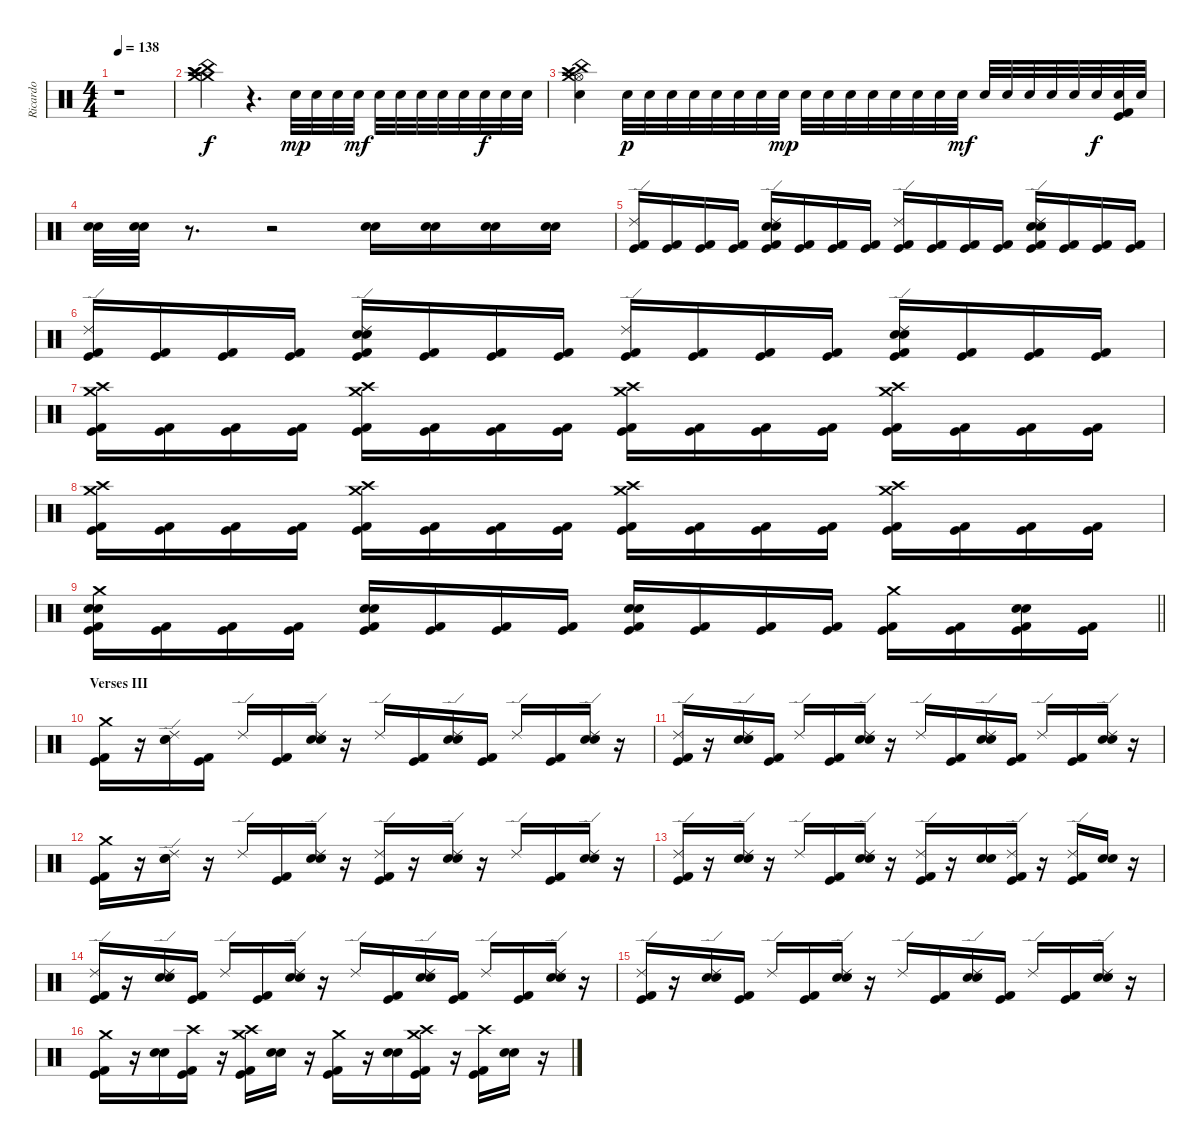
\track ("Ricardo" "Ricardo") {instrument percussion}
\staff {score}
\articulation defaults
\ts (4 4)
\tempo 138
\clef neutral
\ks c
r.1{dy f} |
("China (hit)" "Splash (hit)" "Crash medium (hit)" "Crash medium (hit)" "Crash high (hit)" "Crash high (hit)").4 r.4{d} "Electric Snare (hit)".32{dy mp} "Electric Snare (hit)".32 "Electric Snare (hit)".32 "Electric Snare (hit)".32{dy mf} "Electric Snare (hit)".32 "Electric Snare (hit)".32 "Electric Snare (hit)".32 "Electric Snare (hit)".32 "Electric Snare (hit)".32 "Electric Snare (hit)".32{dy f} "Electric Snare (hit)".32 "Electric Snare (hit)".32 |
("Hi-Hat (open)" "Crash high (hit)" "China (hit)" "Splash (hit)" "Crash medium (hit)" "Electric Snare (hit)").4 "Electric Snare (hit)".32{dy p} "Electric Snare (hit)".32 "Electric Snare (hit)".32 "Electric Snare (hit)".32 "Electric Snare (hit)".32 "Electric Snare (hit)".32 "Electric Snare (hit)".32 "Electric Snare (hit)".32{dy mp} "Electric Snare (hit)".32 "Electric Snare (hit)".32 "Electric Snare (hit)".32 "Electric Snare (hit)".32 "Electric Snare (hit)".32 "Electric Snare (hit)".32 "Electric Snare (hit)".32 "Electric Snare (hit)".32{dy mf} "Electric Snare (hit)".32 "Electric Snare (hit)".32 "Electric Snare (hit)".32 "Electric Snare (hit)".32 "Electric Snare (hit)".32 "Electric Snare (hit)".32{dy f} ("Kick (hit) 2" "Kick (hit)" "Electric Snare (hit)").32 "Electric Snare (hit)".32 |
("Electric Snare (hit)" "Snare (hit) 2").32 ("Electric Snare (hit)" "Snare (hit) 2").32 r.8{d} r.2 ("Electric Snare (hit)" "Snare (hit) 2").16 ("Electric Snare (hit)" "Snare (hit) 2").16 ("Electric Snare (hit)" "Snare (hit) 2").16 ("Snare (hit) 2" "Electric Snare (hit)").16 |
("Ride (edge) 2" "Kick (hit) 2" "Kick (hit)").16 ("Kick (hit) 2" "Kick (hit)").16 ("Kick (hit) 2" "Kick (hit)").16 ("Kick (hit) 2" "Kick (hit)").16 ("Snare (hit) 2" "Electric Snare (hit)" "Ride (edge) 2" "Kick (hit) 2" "Kick (hit)").16 ("Kick (hit) 2" "Kick (hit)").16 ("Kick (hit) 2" "Kick (hit)").16 ("Kick (hit) 2" "Kick (hit)").16 ("Ride (edge) 2" "Kick (hit) 2" "Kick (hit)").16 ("Kick (hit) 2" "Kick (hit)").16 ("Kick (hit) 2" "Kick (hit)").16 ("Kick (hit) 2" "Kick (hit)").16 ("Snare (hit) 2" "Electric Snare (hit)" "Ride (edge) 2" "Kick (hit) 2" "Kick (hit)").16 ("Kick (hit) 2" "Kick (hit)").16 ("Kick (hit) 2" "Kick (hit)").16 ("Kick (hit) 2" "Kick (hit)").16 |
("Ride (edge) 2" "Kick (hit) 2" "Kick (hit)").16 ("Kick (hit) 2" "Kick (hit)").16 ("Kick (hit) 2" "Kick (hit)").16 ("Kick (hit) 2" "Kick (hit)").16 ("Snare (hit) 2" "Electric Snare (hit)" "Ride (edge) 2" "Kick (hit) 2" "Kick (hit)").16 ("Kick (hit) 2" "Kick (hit)").16 ("Kick (hit) 2" "Kick (hit)").16 ("Kick (hit) 2" "Kick (hit)").16 ("Ride (edge) 2" "Kick (hit) 2" "Kick (hit)").16 ("Kick (hit) 2" "Kick (hit)").16 ("Kick (hit) 2" "Kick (hit)").16 ("Kick (hit) 2" "Kick (hit)").16 ("Snare (hit) 2" "Electric Snare (hit)" "Ride (edge) 2" "Kick (hit) 2" "Kick (hit)").16 ("Kick (hit) 2" "Kick (hit)").16 ("Kick (hit) 2" "Kick (hit)").16 ("Kick (hit) 2" "Kick (hit)").16 |
("Crash medium (hit)" "Crash high (hit)" "Kick (hit) 2" "Kick (hit)").16 ("Kick (hit) 2" "Kick (hit)").16 ("Kick (hit) 2" "Kick (hit)").16 ("Kick (hit) 2" "Kick (hit)").16 ("Crash high (hit)" "Crash medium (hit)" "Kick (hit) 2" "Kick (hit)").16 ("Kick (hit) 2" "Kick (hit)").16 ("Kick (hit) 2" "Kick (hit)").16 ("Kick (hit) 2" "Kick (hit)").16 ("Crash high (hit)" "Crash medium (hit)" "Kick (hit) 2" "Kick (hit)").16 ("Kick (hit) 2" "Kick (hit)").16 ("Kick (hit) 2" "Kick (hit)").16 ("Kick (hit) 2" "Kick (hit)").16 ("Crash high (hit)" "Crash medium (hit)" "Kick (hit) 2" "Kick (hit)").16 ("Kick (hit) 2" "Kick (hit)").16 ("Kick (hit) 2" "Kick (hit)").16 ("Kick (hit) 2" "Kick (hit)").16 |
("Crash medium (hit)" "Crash high (hit)" "Kick (hit) 2" "Kick (hit)").16 ("Kick (hit) 2" "Kick (hit)").16 ("Kick (hit) 2" "Kick (hit)").16 ("Kick (hit) 2" "Kick (hit)").16 ("Crash medium (hit)" "Crash high (hit)" "Kick (hit) 2" "Kick (hit)").16 ("Kick (hit) 2" "Kick (hit)").16 ("Kick (hit) 2" "Kick (hit)").16 ("Kick (hit) 2" "Kick (hit)").16 ("Crash medium (hit)" "Crash high (hit)" "Kick (hit) 2" "Kick (hit)").16 ("Kick (hit) 2" "Kick (hit)").16 ("Kick (hit) 2" "Kick (hit)").16 ("Kick (hit) 2" "Kick (hit)").16 ("Crash medium (hit)" "Crash high (hit)" "Kick (hit) 2" "Kick (hit)").16 ("Kick (hit) 2" "Kick (hit)").16 ("Kick (hit) 2" "Kick (hit)").16 ("Kick (hit) 2" "Kick (hit)").16 |
\barLineRight lightlight
("Snare (hit) 2" "Electric Snare (hit)" "Crash medium (hit)" "Kick (hit) 2" "Kick (hit)").16 ("Kick (hit) 2" "Kick (hit)").16 ("Kick (hit) 2" "Kick (hit)").16 ("Kick (hit) 2" "Kick (hit)").16 ("Snare (hit) 2" "Electric Snare (hit)" "Kick (hit) 2" "Kick (hit)").16 ("Kick (hit) 2" "Kick (hit)").16 ("Kick (hit) 2" "Kick (hit)").16 ("Kick (hit) 2" "Kick (hit)").16 ("Snare (hit) 2" "Electric Snare (hit)" "Kick (hit) 2" "Kick (hit)").16 ("Kick (hit) 2" "Kick (hit)").16 ("Kick (hit) 2" "Kick (hit)").16 ("Kick (hit) 2" "Kick (hit)").16 ("Crash medium (hit)" "Kick (hit) 2" "Kick (hit)").16 ("Kick (hit) 2" "Kick (hit)").16 ("Electric Snare (hit)" "Snare (hit) 2" "Kick (hit) 2" "Kick (hit)").16 ("Kick (hit) 2" "Kick (hit)").16 |
\section ("" "Verses III")
("Crash medium (hit)" "Kick (hit) 2" "Kick (hit)").16 r.16 ("Ride (edge) 2" "Electric Snare (hit)" "Snare (hit) 2").16 ("Kick (hit) 2" "Kick (hit)").16 "Ride (edge) 2".16 ("Kick (hit) 2" "Kick (hit)").16 ("Ride (edge) 2" "Electric Snare (hit)" "Snare (hit) 2").16 r.16 "Ride (edge) 2".16 ("Kick (hit) 2" "Kick (hit)").16 ("Snare (hit) 2" "Electric Snare (hit)" "Ride (edge) 2").16 ("Kick (hit) 2" "Kick (hit)").16 "Ride (edge) 2".16 ("Kick (hit) 2" "Kick (hit)").16 ("Ride (edge) 2" "Electric Snare (hit)" "Snare (hit) 2").16 r.16 |
("Ride (edge) 2" "Kick (hit) 2" "Kick (hit)").16 r.16 ("Electric Snare (hit)" "Snare (hit) 2" "Ride (edge) 2").16 ("Kick (hit) 2" "Kick (hit)").16 "Ride (edge) 2".16 ("Kick (hit) 2" "Kick (hit)").16 ("Electric Snare (hit)" "Snare (hit) 2" "Ride (edge) 2").16 r.16 "Ride (edge) 2".16 ("Kick (hit) 2" "Kick (hit)").16 ("Snare (hit) 2" "Electric Snare (hit)" "Ride (edge) 2").16 ("Kick (hit)" "Kick (hit) 2").16 "Ride (edge) 2".16 ("Kick (hit) 2" "Kick (hit)").16 ("Electric Snare (hit)" "Snare (hit) 2" "Ride (edge) 2").16 r.16 |
("Crash medium (hit)" "Kick (hit) 2" "Kick (hit)").16 r.16 ("Electric Snare (hit)" "Snare (hit) 2" "Ride (edge) 2").16 r.16 "Ride (edge) 2".16 ("Kick (hit) 2" "Kick (hit)").16 ("Electric Snare (hit)" "Snare (hit) 2" "Ride (edge) 2").16 r.16 ("Ride (edge) 2" "Kick (hit) 2" "Kick (hit)").16 r.16 ("Electric Snare (hit)" "Snare (hit) 2" "Ride (edge) 2").16 r.16 "Ride (edge) 2".16 ("Kick (hit) 2" "Kick (hit)").16 ("Electric Snare (hit)" "Snare (hit) 2" "Ride (edge) 2").16 r.16 |
("Kick (hit) 2" "Ride (edge) 2" "Kick (hit)").16 r.16 ("Electric Snare (hit)" "Snare (hit) 2" "Ride (edge) 2").16 r.16 "Ride (edge) 2".16 ("Kick (hit) 2" "Kick (hit)").16 ("Electric Snare (hit)" "Snare (hit) 2" "Ride (edge) 2").16 r.16 ("Ride (edge) 2" "Kick (hit) 2" "Kick (hit)").16 r.16 ("Electric Snare (hit)" "Snare (hit) 2").16 ("Ride (edge) 2" "Kick (hit) 2" "Kick (hit)").16 r.16 ("Ride (edge) 2" "Kick (hit) 2" "Kick (hit)").16 ("Electric Snare (hit)" "Snare (hit) 2").16 r.16 |
("Ride (edge) 2" "Kick (hit) 2" "Kick (hit)").16 r.16 ("Electric Snare (hit)" "Snare (hit) 2" "Ride (edge) 2").16 ("Kick (hit) 2" "Kick (hit)").16 "Ride (edge) 2".16 ("Kick (hit) 2" "Kick (hit)").16 ("Electric Snare (hit)" "Snare (hit) 2" "Ride (edge) 2").16 r.16 "Ride (edge) 2".16 ("Kick (hit) 2" "Kick (hit)").16 ("Electric Snare (hit)" "Snare (hit) 2" "Ride (edge) 2").16 ("Kick (hit) 2" "Kick (hit)").16 "Ride (edge) 2".16 ("Kick (hit) 2" "Kick (hit)").16 ("Electric Snare (hit)" "Snare (hit) 2" "Ride (edge) 2").16 r.16 |
("Ride (edge) 2" "Kick (hit) 2" "Kick (hit)").16 r.16 ("Electric Snare (hit)" "Snare (hit) 2" "Ride (edge) 2").16 ("Kick (hit) 2" "Kick (hit)").16 "Ride (edge) 2".16 ("Kick (hit) 2" "Kick (hit)").16 ("Electric Snare (hit)" "Snare (hit) 2" "Ride (edge) 2").16 r.16 "Ride (edge) 2".16 ("Kick (hit) 2" "Kick (hit)").16 ("Electric Snare (hit)" "Snare (hit) 2" "Ride (edge) 2").16 ("Kick (hit) 2" "Kick (hit)").16 "Ride (edge) 2".16 ("Kick (hit) 2" "Kick (hit)").16 ("Electric Snare (hit)" "Snare (hit) 2" "Ride (edge) 2").16 r.16 |
("Crash medium (hit)" "Kick (hit) 2" "Kick (hit)").16 r.16 ("Electric Snare (hit)" "Snare (hit) 2").16 ("Crash high (hit)" "Kick (hit)" "Kick (hit) 2").16 r.16 ("Crash high (hit)" "Crash medium (hit)" "Kick (hit) 2" "Kick (hit)").16 ("Electric Snare (hit)" "Snare (hit) 2").16 r.16 ("Crash medium (hit)" "Kick (hit) 2" "Kick (hit)").16 r.16 ("Electric Snare (hit)" "Snare (hit) 2").16 ("Crash medium (hit)" "Crash high (hit)" "Kick (hit) 2" "Kick (hit)").16 r.16 ("Crash high (hit)" "Kick (hit) 2" "Kick (hit)").16 ("Electric Snare (hit)" "Snare (hit) 2").16 r.16
